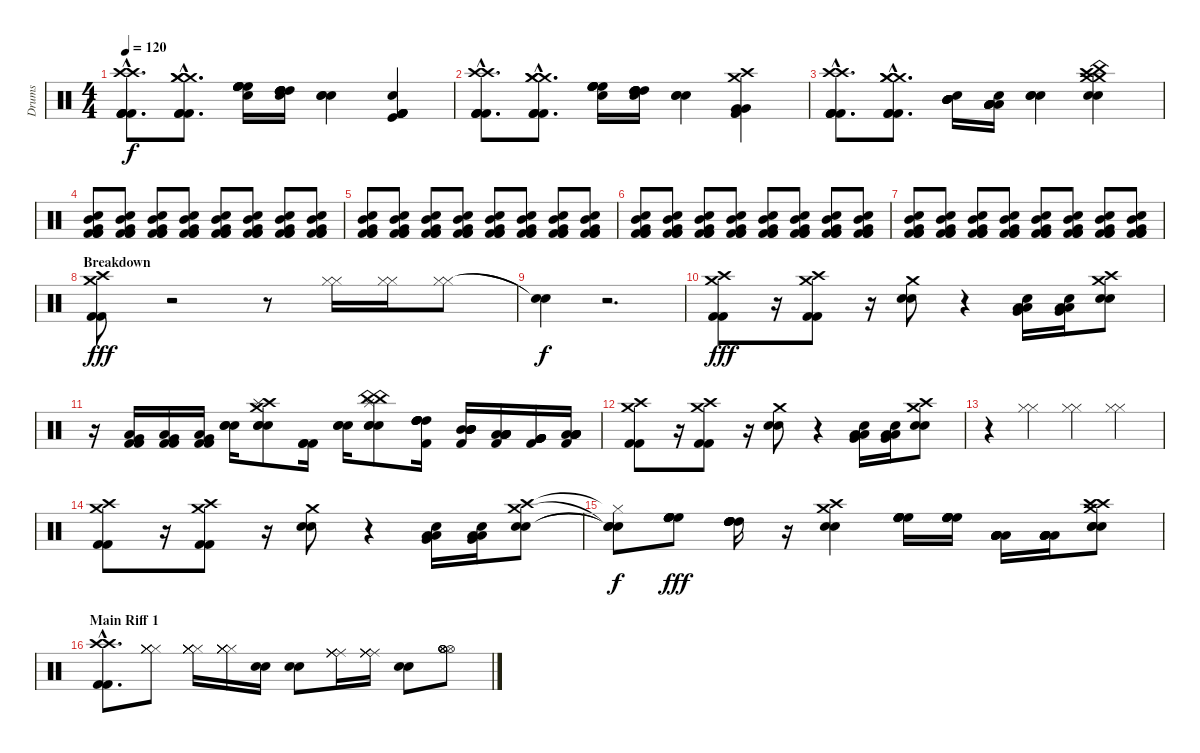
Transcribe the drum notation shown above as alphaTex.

\track ("Drums" "Drums") {instrument percussion}
\staff {score}
\articulation defaults
\ts (4 4)
\tempo 120
\clef neutral
\ks c
("Crash high (hit)"{hac} "Crash high (hit)"{hac} "Kick (hit) 2"{hac} "Kick (hit) 2"{hac} "Kick (hit) 2"{hac} "Kick (hit) 2"{hac}).8{d dy f} ("Crash medium (hit)"{hac} "Crash medium (hit)"{hac} "Crash medium (hit)"{hac} "Kick (hit) 2"{hac} "Kick (hit) 2"{hac} "Kick (hit) 2"{hac}).8{d} ("Snare (hit) 2" "High Floor Tom (hit)" "High Floor Tom (hit)" "High Floor Tom (hit)" "High Floor Tom (hit)" "High Floor Tom (hit)").16 ("Snare (hit) 2" "High Tom (hit)" "High Tom (hit)" "High Tom (hit)" "High Tom (hit)" "High Tom (hit)").16 ("Snare (hit) 2" "Snare (hit) 2" "Snare (hit) 2").4 ("Snare (hit) 2" "Kick (hit) 2" "Kick (hit) 2" "Kick (hit) 2" "Kick (hit) 2" "Kick (hit)").4 |
("Crash high (hit)"{hac} "Crash high (hit)"{hac} "Kick (hit) 2"{hac} "Kick (hit) 2"{hac} "Kick (hit) 2"{hac} "Kick (hit) 2"{hac}).8{d} ("Crash medium (hit)"{hac} "Crash medium (hit)"{hac} "Crash medium (hit)"{hac} "Kick (hit) 2"{hac} "Kick (hit) 2"{hac} "Kick (hit) 2"{hac}).8{d} ("Snare (hit) 2" "High Floor Tom (hit)" "High Floor Tom (hit)" "High Floor Tom (hit)" "High Floor Tom (hit)" "High Floor Tom (hit)").16 ("Snare (hit) 2" "High Tom (hit)" "High Tom (hit)" "High Tom (hit)" "High Tom (hit)" "High Tom (hit)").16 ("Snare (hit) 2" "Snare (hit) 2" "Snare (hit) 2").4 ("Crash medium (hit)" "Very Low Tom (hit)" "Very Low Tom (hit)" "Crash high (hit)" "Kick (hit) 2" "Kick (hit) 2").4 |
("Crash high (hit)"{hac} "Crash high (hit)"{hac} "Kick (hit) 2"{hac} "Kick (hit) 2"{hac} "Kick (hit) 2"{hac} "Kick (hit) 2"{hac}).8{d} ("Kick (hit) 2"{hac} "Kick (hit) 2"{hac} "Kick (hit) 2"{hac} "Crash medium (hit)"{hac} "Crash medium (hit)"{hac} "Crash medium (hit)"{hac}).8{d} ("Snare (hit) 2" "Mid Tom (hit)" "Mid Tom (hit)" "Mid Tom (hit)" "Mid Tom (hit)" "Mid Tom (hit)").16 ("Snare (hit) 2" "Low Tom (hit)" "Low Tom (hit)" "Low Tom (hit)" "Low Tom (hit)" "Low Tom (hit)").16 ("Snare (hit) 2" "Snare (hit) 2" "Snare (hit) 2").4 ("Crash medium (hit)" "Crash high (hit)" "Snare (hit) 2" "Snare (hit) 2" "Crash medium (hit)" "China (hit)").4 |
("Mid Tom (hit)" "Snare (hit) 2" "Very Low Tom (hit)" "Kick (hit) 2" "Kick (hit) 2" "Kick (hit) 2").8{volume 7} ("Mid Tom (hit)" "Snare (hit) 2" "Very Low Tom (hit)" "Kick (hit) 2" "Kick (hit) 2" "Kick (hit) 2").8{volume 9} ("Mid Tom (hit)" "Snare (hit) 2" "Very Low Tom (hit)" "Kick (hit) 2" "Kick (hit) 2" "Kick (hit) 2").8 ("Mid Tom (hit)" "Snare (hit) 2" "Very Low Tom (hit)" "Kick (hit) 2" "Kick (hit) 2" "Kick (hit) 2").8 ("Mid Tom (hit)" "Snare (hit) 2" "Very Low Tom (hit)" "Kick (hit) 2" "Kick (hit) 2" "Kick (hit) 2").8 ("Mid Tom (hit)" "Snare (hit) 2" "Very Low Tom (hit)" "Kick (hit) 2" "Kick (hit) 2" "Kick (hit) 2").8 ("Mid Tom (hit)" "Snare (hit) 2" "Very Low Tom (hit)" "Kick (hit) 2" "Kick (hit) 2" "Kick (hit) 2").8 ("Mid Tom (hit)" "Snare (hit) 2" "Very Low Tom (hit)" "Kick (hit) 2" "Kick (hit) 2" "Kick (hit) 2").8 |
("Mid Tom (hit)" "Snare (hit) 2" "Very Low Tom (hit)" "Kick (hit) 2" "Kick (hit) 2" "Kick (hit) 2").8 ("Mid Tom (hit)" "Snare (hit) 2" "Very Low Tom (hit)" "Kick (hit) 2" "Kick (hit) 2" "Kick (hit) 2").8{volume 11} ("Mid Tom (hit)" "Snare (hit) 2" "Very Low Tom (hit)" "Kick (hit) 2" "Kick (hit) 2" "Kick (hit) 2").8 ("Mid Tom (hit)" "Snare (hit) 2" "Very Low Tom (hit)" "Kick (hit) 2" "Kick (hit) 2" "Kick (hit) 2").8 ("Mid Tom (hit)" "Snare (hit) 2" "Very Low Tom (hit)" "Kick (hit) 2" "Kick (hit) 2" "Kick (hit) 2").8 ("Mid Tom (hit)" "Snare (hit) 2" "Very Low Tom (hit)" "Kick (hit) 2" "Kick (hit) 2" "Kick (hit) 2").8 ("Mid Tom (hit)" "Snare (hit) 2" "Very Low Tom (hit)" "Kick (hit) 2" "Kick (hit) 2" "Kick (hit) 2").8 ("Mid Tom (hit)" "Snare (hit) 2" "Very Low Tom (hit)" "Kick (hit) 2" "Kick (hit) 2" "Kick (hit) 2").8 |
("Mid Tom (hit)" "Snare (hit) 2" "Very Low Tom (hit)" "Kick (hit) 2" "Kick (hit) 2" "Kick (hit) 2").8 ("Mid Tom (hit)" "Snare (hit) 2" "Very Low Tom (hit)" "Kick (hit) 2" "Kick (hit) 2" "Kick (hit) 2").8{volume 13} ("Mid Tom (hit)" "Snare (hit) 2" "Very Low Tom (hit)" "Kick (hit) 2" "Kick (hit) 2" "Kick (hit) 2").8 ("Mid Tom (hit)" "Snare (hit) 2" "Very Low Tom (hit)" "Kick (hit) 2" "Kick (hit) 2" "Kick (hit) 2").8 ("Mid Tom (hit)" "Snare (hit) 2" "Very Low Tom (hit)" "Kick (hit) 2" "Kick (hit) 2" "Kick (hit) 2").8 ("Mid Tom (hit)" "Snare (hit) 2" "Very Low Tom (hit)" "Kick (hit) 2" "Kick (hit) 2" "Kick (hit) 2").8 ("Mid Tom (hit)" "Snare (hit) 2" "Very Low Tom (hit)" "Kick (hit) 2" "Kick (hit) 2" "Kick (hit) 2").8 ("Mid Tom (hit)" "Snare (hit) 2" "Very Low Tom (hit)" "Kick (hit) 2" "Kick (hit) 2" "Kick (hit) 2").8 |
("Mid Tom (hit)" "Snare (hit) 2" "Very Low Tom (hit)" "Kick (hit) 2" "Kick (hit) 2" "Kick (hit) 2").8 ("Mid Tom (hit)" "Snare (hit) 2" "Very Low Tom (hit)" "Kick (hit) 2" "Kick (hit) 2" "Kick (hit) 2").8{volume 16} ("Mid Tom (hit)" "Snare (hit) 2" "Very Low Tom (hit)" "Kick (hit) 2" "Kick (hit) 2" "Kick (hit) 2").8 ("Mid Tom (hit)" "Snare (hit) 2" "Very Low Tom (hit)" "Kick (hit) 2" "Kick (hit) 2" "Kick (hit) 2").8 ("Mid Tom (hit)" "Snare (hit) 2" "Very Low Tom (hit)" "Kick (hit) 2" "Kick (hit) 2" "Kick (hit) 2").8 ("Mid Tom (hit)" "Snare (hit) 2" "Very Low Tom (hit)" "Kick (hit) 2" "Kick (hit) 2" "Kick (hit) 2").8 ("Mid Tom (hit)" "Snare (hit) 2" "Very Low Tom (hit)" "Kick (hit) 2" "Kick (hit) 2" "Kick (hit) 2").8 ("Mid Tom (hit)" "Snare (hit) 2" "Very Low Tom (hit)" "Kick (hit) 2" "Kick (hit) 2" "Kick (hit) 2").8 |
\section ("" "Breakdown")
("Crash medium (hit)" "Crash high (hit)" "Kick (hit) 2" "Kick (hit) 2").8{dy fff} r.2 r.8 ("Hi-Hat (closed)" "Hi-Hat (closed)").16 ("Hi-Hat (closed)" "Hi-Hat (closed)").16 ("Hi-Hat (closed)" "Hi-Hat (closed)").8 |
("Snare (hit)"{t} "Snare (hit)"{t}).4{dy f} r.2{d} |
("Kick (hit) 2" "Kick (hit) 2" "Crash high (hit)" "Crash medium (hit)").8{dy fff balance 0} r.16 ("Kick (hit) 2" "Kick (hit) 2" "Crash high (hit)" "Crash medium (hit)").8{balance 16} r.16 ("Snare (hit) 2" "Snare (hit) 2" "Crash medium (hit)").8{balance 0} r.4 ("Low Floor Tom (hit)" "Low Floor Tom (hit)" "Very Low Tom (hit)" "Snare (hit) 2").16{balance 8} ("Low Floor Tom (hit)" "Low Floor Tom (hit)" "Very Low Tom (hit)" "Snare (hit) 2").16 ("Crash medium (hit)" "Snare (hit) 2" "Snare (hit) 2" "Crash high (hit)").8 |
r.16 ("Low Floor Tom (hit)" "Kick (hit) 2" "Kick (hit) 2" "Very Low Tom (hit)").16 ("Low Floor Tom (hit)" "Kick (hit) 2" "Kick (hit) 2" "Very Low Tom (hit)").16 ("Low Floor Tom (hit)" "Kick (hit) 2" "Kick (hit) 2" "Very Low Tom (hit)").16 ("Snare (hit) 2" "Snare (hit) 2" "Snare (hit) 2").16 ("Crash medium (hit)" "Snare (hit) 2" "Snare (hit) 2" "Snare (hit) 2" "Crash high (hit)" "Splash (hit)").8 ("Kick (hit) 2" "Kick (hit) 2" "Kick (hit) 2").16 ("Snare (hit) 2" "Snare (hit) 2" "Snare (hit) 2").16 ("China (hit)" "Snare (hit) 2" "Snare (hit) 2" "Snare (hit) 2" "China (hit)" "Splash (hit)").8 ("High Tom (hit)" "High Tom (hit)" "High Tom (hit)" "High Tom (hit)" "Kick (hit) 2" "High Tom (hit)").16{balance 0} ("Mid Tom (hit)" "Mid Tom (hit)" "Mid Tom (hit)" "Mid Tom (hit)" "Kick (hit) 2" "Mid Tom (hit)").16{balance 4} ("Low Tom (hit)" "Low Tom (hit)" "Low Tom (hit)" "Low Tom (hit)" "Kick (hit) 2" "Low Tom (hit)").16{balance 8} ("Very Low Tom (hit)" "Very Low Tom (hit)" "Very Low Tom (hit)" "Very Low Tom (hit)" "Kick (hit) 2" "Very Low Tom (hit)").16{balance 12} ("Low Floor Tom (hit)" "Low Floor Tom (hit)" "Low Floor Tom (hit)" "Low Floor Tom (hit)" "Kick (hit) 2" "Low Floor Tom (hit)").16{balance 16} |
("Kick (hit) 2" "Kick (hit) 2" "Crash high (hit)" "Crash medium (hit)").8{balance 0} r.16 ("Kick (hit) 2" "Kick (hit) 2" "Crash high (hit)" "Crash medium (hit)").8{balance 16} r.16 ("Snare (hit) 2" "Snare (hit) 2" "Crash medium (hit)").8{balance 0} r.4 ("Low Floor Tom (hit)" "Low Floor Tom (hit)" "Very Low Tom (hit)" "Snare (hit) 2").16{balance 8} ("Low Floor Tom (hit)" "Low Floor Tom (hit)" "Very Low Tom (hit)" "Snare (hit) 2").16 ("Crash medium (hit)" "Snare (hit) 2" "Snare (hit) 2" "Crash high (hit)").8 |
r.4 ("Hi-Hat (closed)" "Hi-Hat (closed)").4 ("Hi-Hat (closed)" "Hi-Hat (closed)").4 ("Hi-Hat (closed)" "Hi-Hat (closed)").4 |
("Kick (hit) 2" "Kick (hit) 2" "Crash high (hit)" "Crash medium (hit)").8{balance 0} r.16 ("Kick (hit) 2" "Kick (hit) 2" "Crash high (hit)" "Crash medium (hit)").8{balance 16} r.16 ("Snare (hit) 2" "Snare (hit) 2" "Crash medium (hit)").8{balance 0} r.4 ("Low Floor Tom (hit)" "Low Floor Tom (hit)" "Very Low Tom (hit)" "Snare (hit) 2").16{balance 8} ("Low Floor Tom (hit)" "Low Floor Tom (hit)" "Very Low Tom (hit)" "Snare (hit) 2").16 ("Crash medium (hit)" "Snare (hit) 2" "Snare (hit) 2" "Crash high (hit)").8 |
("Snare (hit)"{t} "Snare (hit)"{t} "Snare (hit)"{t} "Hi-Hat (closed)"{t}).8{dy f} ("High Floor Tom (hit)" "High Floor Tom (hit)" "High Floor Tom (hit)" "High Floor Tom (hit)" "High Floor Tom (hit)" "High Floor Tom (hit)").8{dy fff} ("High Tom (hit)" "High Tom (hit)" "High Tom (hit)" "High Tom (hit)" "High Tom (hit)" "High Tom (hit)").16 r.16 ("Crash medium (hit)" "Snare (hit) 2" "Snare (hit) 2" "Crash high (hit)").4 ("High Floor Tom (hit)" "High Floor Tom (hit)" "High Floor Tom (hit)" "High Floor Tom (hit)" "High Floor Tom (hit)" "High Floor Tom (hit)").16 ("High Floor Tom (hit)" "High Floor Tom (hit)" "High Floor Tom (hit)" "High Floor Tom (hit)" "High Floor Tom (hit)" "High Floor Tom (hit)").16 ("Low Tom (hit)" "Low Tom (hit)" "Low Tom (hit)" "Low Tom (hit)" "Low Tom (hit)" "Low Tom (hit)").16 ("Low Tom (hit)" "Low Tom (hit)" "Low Tom (hit)" "Low Tom (hit)" "Low Tom (hit)" "Low Tom (hit)").16 ("Crash high (hit)" "Crash high (hit)" "Snare (hit) 2" "Snare (hit) 2" "Snare (hit) 2" "Crash medium (hit)").8 |
\section ("" "Main Riff 1")
("Crash high (hit)"{hac} "Crash high (hit)"{hac} "Kick (hit) 2"{hac} "Kick (hit) 2"{hac}).8{d volume 14} ("Hi-Hat (closed)" "Hi-Hat (closed)" "Hi-Hat (closed)" "Hi-Hat (closed)" "Hi-Hat (closed)").8 ("Hi-Hat (closed)" "Hi-Hat (closed)" "Hi-Hat (closed)" "Hi-Hat (closed)" "Hi-Hat (closed)").16 ("Hi-Hat (closed)" "Hi-Hat (closed)" "Hi-Hat (closed)" "Hi-Hat (closed)" "Hi-Hat (closed)").16 ("Snare (hit) 2" "Snare (hit) 2").16 ("Snare (hit) 2" "Snare (hit) 2").8 ("Ride (middle)" "Ride (middle)" "Ride (middle)" "Ride (middle)" "Ride (middle)").16 ("Ride (middle)" "Ride (middle)" "Ride (middle)" "Ride (middle)" "Ride (middle)").16 ("Snare (hit) 2" "Snare (hit) 2").8 ("Hi-Hat (open)" "Hi-Hat (open)" "Hi-Hat (open)" "Hi-Hat (open)" "Hi-Hat (open)").8
